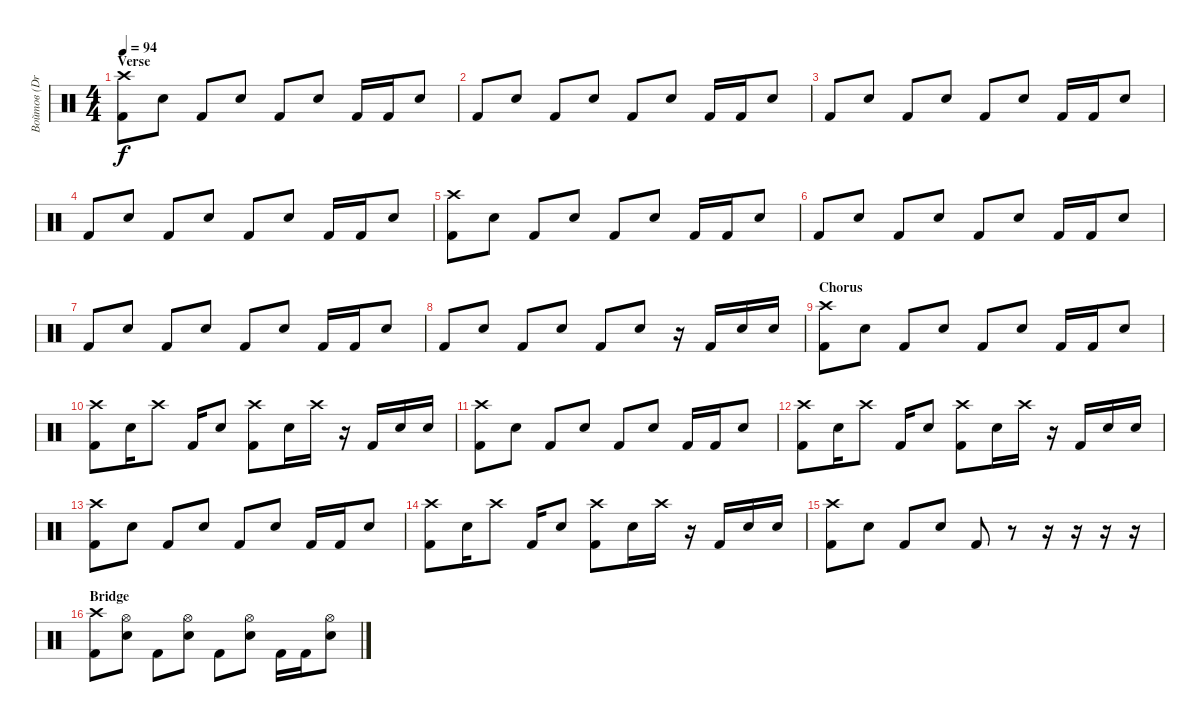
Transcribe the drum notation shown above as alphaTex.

\track ("Войтов (Drums)" "Войтов (Dr") {instrument percussion}
\staff {score}
\articulation defaults
\ts (4 4)
\section ("" "Verse")
\tempo 94
\clef neutral
\ks c
("Kick (hit) 2" "Crash high (hit)").8{dy f} "Electric Snare (hit)".8 "Kick (hit) 2".8 "Electric Snare (hit)".8 "Kick (hit) 2".8 "Electric Snare (hit)".8 "Kick (hit) 2".16 "Kick (hit) 2".16 "Electric Snare (hit)".8 |
"Kick (hit) 2".8 "Electric Snare (hit)".8 "Kick (hit) 2".8 "Electric Snare (hit)".8 "Kick (hit) 2".8 "Electric Snare (hit)".8 "Kick (hit) 2".16 "Kick (hit) 2".16 "Electric Snare (hit)".8 |
"Kick (hit) 2".8 "Electric Snare (hit)".8 "Kick (hit) 2".8 "Electric Snare (hit)".8 "Kick (hit) 2".8 "Electric Snare (hit)".8 "Kick (hit) 2".16 "Kick (hit) 2".16 "Electric Snare (hit)".8 |
"Kick (hit) 2".8 "Electric Snare (hit)".8 "Kick (hit) 2".8 "Electric Snare (hit)".8 "Kick (hit) 2".8 "Electric Snare (hit)".8 "Kick (hit) 2".16 "Kick (hit) 2".16 "Electric Snare (hit)".8 |
("Kick (hit) 2" "Crash high (hit)").8 "Electric Snare (hit)".8 "Kick (hit) 2".8 "Electric Snare (hit)".8 "Kick (hit) 2".8 "Electric Snare (hit)".8 "Kick (hit) 2".16 "Kick (hit) 2".16 "Electric Snare (hit)".8 |
"Kick (hit) 2".8 "Electric Snare (hit)".8 "Kick (hit) 2".8 "Electric Snare (hit)".8 "Kick (hit) 2".8 "Electric Snare (hit)".8 "Kick (hit) 2".16 "Kick (hit) 2".16 "Electric Snare (hit)".8 |
"Kick (hit) 2".8 "Electric Snare (hit)".8 "Kick (hit) 2".8 "Electric Snare (hit)".8 "Kick (hit) 2".8 "Electric Snare (hit)".8 "Kick (hit) 2".16 "Kick (hit) 2".16 "Electric Snare (hit)".8 |
"Kick (hit) 2".8 "Electric Snare (hit)".8 "Kick (hit) 2".8 "Electric Snare (hit)".8 "Kick (hit) 2".8 "Electric Snare (hit)".8 r.16 "Kick (hit) 2".16 "Electric Snare (hit)".16 "Electric Snare (hit)".16 |
\section ("" "Chorus")
("Kick (hit) 2" "Crash high (hit)").8 "Electric Snare (hit)".8 "Kick (hit) 2".8 "Electric Snare (hit)".8 "Kick (hit) 2".8 "Electric Snare (hit)".8 "Kick (hit) 2".16 "Kick (hit) 2".16 "Electric Snare (hit)".8 |
("Kick (hit) 2" "Crash high (hit)").8 "Electric Snare (hit)".16 "Crash high (hit)".8 "Kick (hit) 2".16 "Electric Snare (hit)".8 ("Kick (hit) 2" "Crash high (hit)").8 "Electric Snare (hit)".16 "Crash high (hit)".16 r.16 "Kick (hit) 2".16 "Electric Snare (hit)".16 "Electric Snare (hit)".16 |
("Kick (hit) 2" "Crash high (hit)").8 "Electric Snare (hit)".8 "Kick (hit) 2".8 "Electric Snare (hit)".8 "Kick (hit) 2".8 "Electric Snare (hit)".8 "Kick (hit) 2".16 "Kick (hit) 2".16 "Electric Snare (hit)".8 |
("Kick (hit) 2" "Crash high (hit)").8 "Electric Snare (hit)".16 "Crash high (hit)".8 "Kick (hit) 2".16 "Electric Snare (hit)".8 ("Kick (hit) 2" "Crash high (hit)").8 "Electric Snare (hit)".16 "Crash high (hit)".16 r.16 "Kick (hit) 2".16 "Electric Snare (hit)".16 "Electric Snare (hit)".16 |
("Kick (hit) 2" "Crash high (hit)").8 "Electric Snare (hit)".8 "Kick (hit) 2".8 "Electric Snare (hit)".8 "Kick (hit) 2".8 "Electric Snare (hit)".8 "Kick (hit) 2".16 "Kick (hit) 2".16 "Electric Snare (hit)".8 |
("Kick (hit) 2" "Crash high (hit)").8 "Electric Snare (hit)".16 "Crash high (hit)".8 "Kick (hit) 2".16 "Electric Snare (hit)".8 ("Kick (hit) 2" "Crash high (hit)").8 "Electric Snare (hit)".16 "Crash high (hit)".16 r.16 "Kick (hit) 2".16 "Electric Snare (hit)".16 "Electric Snare (hit)".16 |
("Kick (hit) 2" "Crash high (hit)").8 "Electric Snare (hit)".8 "Kick (hit) 2".8 "Electric Snare (hit)".8 "Kick (hit) 2".8 r.8 r.16 r.16 r.16 r.16 |
\section ("" "Bridge")
("Kick (hit) 2" "Crash high (hit)").8 ("Electric Snare (hit)" "Hi-Hat (open)").8 "Kick (hit) 2".8 ("Electric Snare (hit)" "Hi-Hat (open)").8 "Kick (hit) 2".8 ("Electric Snare (hit)" "Hi-Hat (open)").8 "Kick (hit) 2".16 "Kick (hit) 2".16 ("Electric Snare (hit)" "Hi-Hat (open)").8
